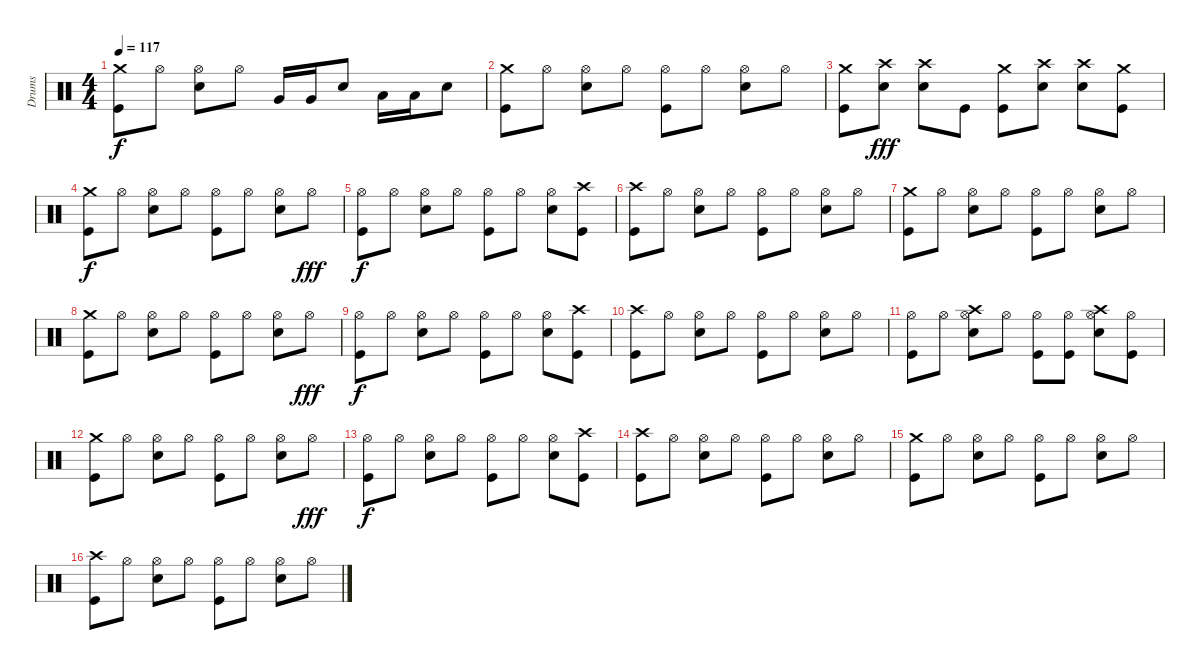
\track ("Drums" "Drums") {instrument percussion}
\staff {score}
\articulation defaults
\ts (4 4)
\tempo 117
\clef neutral
\ks c
("Crash medium (hit)" "Kick (hit)").8{dy f} "Hi-Hat (open)".8 ("Hi-Hat (open)" "Snare (hit) 2").8 "Hi-Hat (open)".8 "Very Low Tom (hit)".16 "Very Low Tom (hit)".16 "Snare (hit) 2".8 "Low Floor Tom (hit)".16 "Low Floor Tom (hit)".16 "Snare (hit) 2".8 |
("Crash medium (hit)" "Kick (hit)").8 "Hi-Hat (open)".8 ("Hi-Hat (open)" "Snare (hit) 2").8 "Hi-Hat (open)".8 ("Hi-Hat (open)" "Kick (hit)").8 "Hi-Hat (open)".8 ("Hi-Hat (open)" "Snare (hit) 2").8 "Hi-Hat (open)".8 |
("Crash medium (hit)" "Kick (hit)").8 ("Crash high (hit)" "Snare (hit) 2").8{dy fff} ("Crash high (hit)" "Snare (hit) 2").8 "Kick (hit)".8 ("Crash medium (hit)" "Kick (hit)").8 ("Crash high (hit)" "Snare (hit) 2").8 ("Crash high (hit)" "Snare (hit) 2").8 ("Crash medium (hit)" "Kick (hit)").8 |
("Crash medium (hit)" "Kick (hit)").8{dy f} "Hi-Hat (open)".8 ("Hi-Hat (open)" "Snare (hit) 2").8 "Hi-Hat (open)".8 ("Hi-Hat (open)" "Kick (hit)").8 "Hi-Hat (open)".8 ("Hi-Hat (open)" "Snare (hit) 2").8 "Hi-Hat (open)".8{dy fff} |
("Hi-Hat (open)" "Kick (hit)").8{dy f} "Hi-Hat (open)".8 ("Hi-Hat (open)" "Snare (hit) 2").8 "Hi-Hat (open)".8 ("Hi-Hat (open)" "Kick (hit)").8 "Hi-Hat (open)".8 ("Hi-Hat (open)" "Snare (hit) 2").8 ("Crash high (hit)" "Kick (hit)").8 |
("Crash high (hit)" "Kick (hit)").8 "Hi-Hat (open)".8 ("Hi-Hat (open)" "Snare (hit) 2").8 "Hi-Hat (open)".8 ("Hi-Hat (open)" "Kick (hit)").8 "Hi-Hat (open)".8 ("Hi-Hat (open)" "Snare (hit) 2").8 "Hi-Hat (open)".8 |
("Crash medium (hit)" "Kick (hit)").8 "Hi-Hat (open)".8 ("Hi-Hat (open)" "Snare (hit) 2").8 "Hi-Hat (open)".8 ("Hi-Hat (open)" "Kick (hit)").8 "Hi-Hat (open)".8 ("Hi-Hat (open)" "Snare (hit) 2").8 "Hi-Hat (open)".8 |
("Crash medium (hit)" "Kick (hit)").8 "Hi-Hat (open)".8 ("Hi-Hat (open)" "Snare (hit) 2").8 "Hi-Hat (open)".8 ("Hi-Hat (open)" "Kick (hit)").8 "Hi-Hat (open)".8 ("Hi-Hat (open)" "Snare (hit) 2").8 "Hi-Hat (open)".8{dy fff} |
("Hi-Hat (open)" "Kick (hit)").8{dy f} "Hi-Hat (open)".8 ("Hi-Hat (open)" "Snare (hit) 2").8 "Hi-Hat (open)".8 ("Hi-Hat (open)" "Kick (hit)").8 "Hi-Hat (open)".8 ("Hi-Hat (open)" "Snare (hit) 2").8 ("Crash high (hit)" "Kick (hit)").8 |
("Crash high (hit)" "Kick (hit)").8 "Hi-Hat (open)".8 ("Hi-Hat (open)" "Snare (hit) 2").8 "Hi-Hat (open)".8 ("Hi-Hat (open)" "Kick (hit)").8 "Hi-Hat (open)".8 ("Hi-Hat (open)" "Snare (hit) 2").8 "Hi-Hat (open)".8 |
("Hi-Hat (open)" "Kick (hit)").8 "Hi-Hat (open)".8 ("Hi-Hat (open)" "Crash high (hit)" "Snare (hit) 2").8 "Hi-Hat (open)".8 ("Hi-Hat (open)" "Kick (hit)").8 ("Hi-Hat (open)" "Kick (hit)").8 ("Crash high (hit)" "Hi-Hat (open)" "Snare (hit) 2").8 ("Hi-Hat (open)" "Kick (hit)").8 |
("Crash medium (hit)" "Kick (hit)").8 "Hi-Hat (open)".8 ("Hi-Hat (open)" "Snare (hit) 2").8 "Hi-Hat (open)".8 ("Hi-Hat (open)" "Kick (hit)").8 "Hi-Hat (open)".8 ("Hi-Hat (open)" "Snare (hit) 2").8 "Hi-Hat (open)".8{dy fff} |
("Hi-Hat (open)" "Kick (hit)").8{dy f} "Hi-Hat (open)".8 ("Hi-Hat (open)" "Snare (hit) 2").8 "Hi-Hat (open)".8 ("Hi-Hat (open)" "Kick (hit)").8 "Hi-Hat (open)".8 ("Hi-Hat (open)" "Snare (hit) 2").8 ("Crash high (hit)" "Kick (hit)").8 |
("Crash high (hit)" "Kick (hit)").8 "Hi-Hat (open)".8 ("Hi-Hat (open)" "Snare (hit) 2").8 "Hi-Hat (open)".8 ("Hi-Hat (open)" "Kick (hit)").8 "Hi-Hat (open)".8 ("Hi-Hat (open)" "Snare (hit) 2").8 "Hi-Hat (open)".8 |
("Crash medium (hit)" "Kick (hit)").8 "Hi-Hat (open)".8 ("Hi-Hat (open)" "Snare (hit) 2").8 "Hi-Hat (open)".8 ("Hi-Hat (open)" "Kick (hit)").8 "Hi-Hat (open)".8 ("Hi-Hat (open)" "Snare (hit) 2").8 "Hi-Hat (open)".8 |
("Crash high (hit)" "Kick (hit)").8 "Hi-Hat (open)".8 ("Hi-Hat (open)" "Snare (hit) 2").8 "Hi-Hat (open)".8 ("Hi-Hat (open)" "Kick (hit)").8 "Hi-Hat (open)".8 ("Hi-Hat (open)" "Snare (hit) 2").8 "Hi-Hat (open)".8
